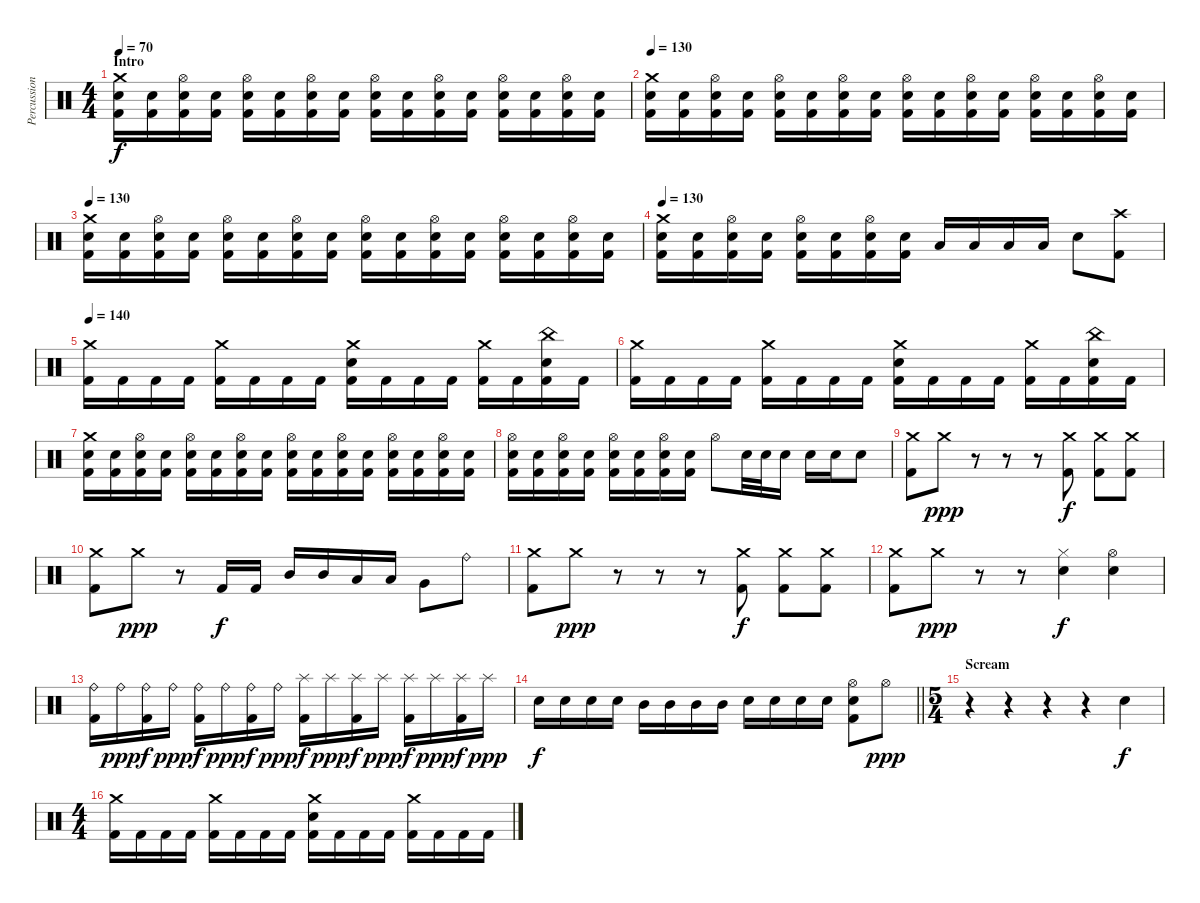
\track ("Percussion" "Percussion") {instrument percussion}
\staff {score}
\articulation defaults
\ts (4 4)
\section ("" "Intro")
\tempo 70
\tempo 130
\tempo 70
\clef neutral
\ks c
("Crash medium (hit)" "Electric Snare (hit)" "Kick (hit) 2").16{dy f} ("Electric Snare (hit)" "Kick (hit) 2").16 ("Hi-Hat (open)" "Electric Snare (hit)" "Kick (hit) 2").16 ("Electric Snare (hit)" "Kick (hit) 2").16 ("Hi-Hat (open)" "Electric Snare (hit)" "Kick (hit) 2").16 ("Electric Snare (hit)" "Kick (hit) 2").16 ("Hi-Hat (open)" "Electric Snare (hit)" "Kick (hit) 2").16 ("Electric Snare (hit)" "Kick (hit) 2").16 ("Hi-Hat (open)" "Electric Snare (hit)" "Kick (hit) 2").16 ("Electric Snare (hit)" "Kick (hit) 2").16 ("Hi-Hat (open)" "Electric Snare (hit)" "Kick (hit) 2").16 ("Electric Snare (hit)" "Kick (hit) 2").16 ("Hi-Hat (open)" "Electric Snare (hit)" "Kick (hit) 2").16 ("Electric Snare (hit)" "Kick (hit) 2").16 ("Hi-Hat (open)" "Electric Snare (hit)" "Kick (hit) 2").16 ("Electric Snare (hit)" "Kick (hit) 2").16 |
\tempo 130
("Crash medium (hit)" "Electric Snare (hit)" "Kick (hit) 2").16 ("Electric Snare (hit)" "Kick (hit) 2").16 ("Hi-Hat (open)" "Electric Snare (hit)" "Kick (hit) 2").16 ("Electric Snare (hit)" "Kick (hit) 2").16 ("Hi-Hat (open)" "Electric Snare (hit)" "Kick (hit) 2").16 ("Electric Snare (hit)" "Kick (hit) 2").16 ("Hi-Hat (open)" "Electric Snare (hit)" "Kick (hit) 2").16 ("Electric Snare (hit)" "Kick (hit) 2").16 ("Hi-Hat (open)" "Electric Snare (hit)" "Kick (hit) 2").16 ("Electric Snare (hit)" "Kick (hit) 2").16 ("Hi-Hat (open)" "Electric Snare (hit)" "Kick (hit) 2").16 ("Electric Snare (hit)" "Kick (hit) 2").16 ("Hi-Hat (open)" "Electric Snare (hit)" "Kick (hit) 2").16 ("Electric Snare (hit)" "Kick (hit) 2").16 ("Hi-Hat (open)" "Electric Snare (hit)" "Kick (hit) 2").16 ("Electric Snare (hit)" "Kick (hit) 2").16 |
\tempo 130
("Crash medium (hit)" "Electric Snare (hit)" "Kick (hit) 2").16 ("Electric Snare (hit)" "Kick (hit) 2").16 ("Hi-Hat (open)" "Electric Snare (hit)" "Kick (hit) 2").16 ("Electric Snare (hit)" "Kick (hit) 2").16 ("Hi-Hat (open)" "Electric Snare (hit)" "Kick (hit) 2").16 ("Electric Snare (hit)" "Kick (hit) 2").16 ("Hi-Hat (open)" "Electric Snare (hit)" "Kick (hit) 2").16 ("Electric Snare (hit)" "Kick (hit) 2").16 ("Hi-Hat (open)" "Electric Snare (hit)" "Kick (hit) 2").16 ("Electric Snare (hit)" "Kick (hit) 2").16 ("Hi-Hat (open)" "Electric Snare (hit)" "Kick (hit) 2").16 ("Electric Snare (hit)" "Kick (hit) 2").16 ("Hi-Hat (open)" "Electric Snare (hit)" "Kick (hit) 2").16 ("Electric Snare (hit)" "Kick (hit) 2").16 ("Hi-Hat (open)" "Electric Snare (hit)" "Kick (hit) 2").16 ("Electric Snare (hit)" "Kick (hit) 2").16 |
\tempo 130
("Crash medium (hit)" "Electric Snare (hit)" "Kick (hit) 2").16 ("Electric Snare (hit)" "Kick (hit) 2").16 ("Hi-Hat (open)" "Electric Snare (hit)" "Kick (hit) 2").16 ("Electric Snare (hit)" "Kick (hit) 2").16 ("Hi-Hat (open)" "Electric Snare (hit)" "Kick (hit) 2").16 ("Electric Snare (hit)" "Kick (hit) 2").16 ("Hi-Hat (open)" "Electric Snare (hit)" "Kick (hit) 2").16 ("Electric Snare (hit)" "Kick (hit) 2").16 "Low Tom (hit)".16 "Low Tom (hit)".16 "Low Tom (hit)".16 "Low Tom (hit)".16 "Electric Snare (hit)".8 ("Crash high (hit)" "Kick (hit) 2").8 |
\tempo 140
("Crash medium (hit)" "Kick (hit) 2").16 "Kick (hit) 2".16 "Kick (hit) 2".16 "Kick (hit) 2".16 ("Crash medium (hit)" "Kick (hit) 2").16 "Kick (hit) 2".16 "Kick (hit) 2".16 "Kick (hit) 2".16 ("Crash medium (hit)" "Electric Snare (hit)" "Kick (hit) 2").16 "Kick (hit) 2".16 "Kick (hit) 2".16 "Kick (hit) 2".16 ("Crash medium (hit)" "Kick (hit) 2").16 "Kick (hit) 2".16 ("China (hit)" "Electric Snare (hit)" "Kick (hit) 2").16 "Kick (hit) 2".16 |
("Crash medium (hit)" "Kick (hit) 2").16 "Kick (hit) 2".16 "Kick (hit) 2".16 "Kick (hit) 2".16 ("Crash medium (hit)" "Kick (hit) 2").16 "Kick (hit) 2".16 "Kick (hit) 2".16 "Kick (hit) 2".16 ("Crash medium (hit)" "Electric Snare (hit)" "Kick (hit) 2").16 "Kick (hit) 2".16 "Kick (hit) 2".16 "Kick (hit) 2".16 ("Crash medium (hit)" "Kick (hit) 2").16 "Kick (hit) 2".16 ("China (hit)" "Electric Snare (hit)" "Kick (hit) 2").16 "Kick (hit) 2".16 |
("Crash medium (hit)" "Electric Snare (hit)" "Kick (hit) 2").16 ("Electric Snare (hit)" "Kick (hit) 2").16 ("Hi-Hat (open)" "Electric Snare (hit)" "Kick (hit) 2").16 ("Electric Snare (hit)" "Kick (hit) 2").16 ("Hi-Hat (open)" "Electric Snare (hit)" "Kick (hit) 2").16 ("Electric Snare (hit)" "Kick (hit) 2").16 ("Hi-Hat (open)" "Electric Snare (hit)" "Kick (hit) 2").16 ("Electric Snare (hit)" "Kick (hit) 2").16 ("Hi-Hat (open)" "Electric Snare (hit)" "Kick (hit) 2").16 ("Electric Snare (hit)" "Kick (hit) 2").16 ("Hi-Hat (open)" "Electric Snare (hit)" "Kick (hit) 2").16 ("Electric Snare (hit)" "Kick (hit) 2").16 ("Hi-Hat (open)" "Electric Snare (hit)" "Kick (hit) 2").16 ("Electric Snare (hit)" "Kick (hit) 2").16 ("Hi-Hat (open)" "Electric Snare (hit)" "Kick (hit) 2").16 ("Electric Snare (hit)" "Kick (hit) 2").16 |
("Hi-Hat (open)" "Electric Snare (hit)" "Kick (hit) 2").16 ("Electric Snare (hit)" "Kick (hit) 2").16 ("Hi-Hat (open)" "Electric Snare (hit)" "Kick (hit) 2").16 ("Electric Snare (hit)" "Kick (hit) 2").16 ("Hi-Hat (open)" "Electric Snare (hit)" "Kick (hit) 2").16 ("Electric Snare (hit)" "Kick (hit) 2").16 ("Hi-Hat (open)" "Electric Snare (hit)" "Kick (hit) 2").16 ("Electric Snare (hit)" "Kick (hit) 2").16 "Hi-Hat (open)".8 "Electric Snare (hit)".32 "Electric Snare (hit)".32 "Electric Snare (hit)".16 "Electric Snare (hit)".16 "Electric Snare (hit)".16 "Electric Snare (hit)".8 |
("Crash medium (hit)" "Kick (hit) 2").8 "Crash medium (hit)".8{dy ppp} r.8 r.8 r.8 ("Crash medium (hit)" "Kick (hit) 2").8{dy f} ("Crash medium (hit)" "Kick (hit) 2").8 ("Crash medium (hit)" "Kick (hit) 2").8 |
("Crash medium (hit)" "Kick (hit) 2").8 "Crash medium (hit)".8{dy ppp} r.8 "Kick (hit) 2".16{dy f} "Kick (hit) 2".16 "Mid Tom (hit)".16 "Mid Tom (hit)".16 "Low Tom (hit)".16 "Low Tom (hit)".16 "Very Low Tom (hit)".8 "Ride (bell)".8 |
("Crash medium (hit)" "Kick (hit) 2").8 "Crash medium (hit)".8{dy ppp} r.8 r.8 r.8 ("Crash medium (hit)" "Kick (hit) 2").8{dy f} ("Crash medium (hit)" "Kick (hit) 2").8 ("Crash medium (hit)" "Kick (hit) 2").8 |
("Crash medium (hit)" "Kick (hit) 2").8 "Crash medium (hit)".8{dy ppp} r.8 r.8 ("Hi-Hat (closed)" "Electric Snare (hit)").4{dy f} ("Hi-Hat (open)" "Electric Snare (hit)").4 |
("Ride (bell)" "Kick (hit) 2").16 "Ride (bell)".16{dy ppp} ("Ride (bell)" "Kick (hit) 2").16{dy f} "Ride (bell)".16{dy ppp} ("Ride (bell)" "Kick (hit) 2").16{dy f} "Ride (bell)".16{dy ppp} ("Ride (bell)" "Kick (hit) 2").16{dy f} "Ride (bell)".16{dy ppp} ("Splash (hit)" "Kick (hit) 2").16{dy f} "Splash (hit)".16{dy ppp} ("Splash (hit)" "Kick (hit) 2").16{dy f} "Splash (hit)".16{dy ppp} ("Splash (hit)" "Kick (hit) 2").16{dy f} "Splash (hit)".16{dy ppp} ("Splash (hit)" "Kick (hit) 2").16{dy f} "Splash (hit)".16{dy ppp} |
\barLineRight lightlight "Electric Snare (hit)".16{dy f} "Electric Snare (hit)".16 "Electric Snare (hit)".16 "Electric Snare (hit)".16 "Mid Tom (hit)".16 "Mid Tom (hit)".16 "Mid Tom (hit)".16 "Mid Tom (hit)".16 "Electric Snare (hit)".16 "Electric Snare (hit)".16 "Electric Snare (hit)".16 "Electric Snare (hit)".16
("Hi-Hat (open)" "Electric Snare (hit)" "Kick (hit) 2").8 "Hi-Hat (open)".8{dy ppp} |
\ts (5 4)
\section ("" "Scream")
r.4 r.4 r.4 r.4 "Electric Snare (hit)".4{dy f} |
\ts (4 4)
("Crash medium (hit)" "Kick (hit) 2").16 "Kick (hit) 2".16 "Kick (hit) 2".16 "Kick (hit) 2".16 ("Crash medium (hit)" "Kick (hit) 2").16 "Kick (hit) 2".16 "Kick (hit) 2".16 "Kick (hit) 2".16 ("Crash medium (hit)" "Electric Snare (hit)" "Kick (hit) 2").16 "Kick (hit) 2".16 "Kick (hit) 2".16 "Kick (hit) 2".16 ("Crash medium (hit)" "Kick (hit) 2").16 "Kick (hit) 2".16 "Kick (hit) 2".16 "Kick (hit) 2".16
